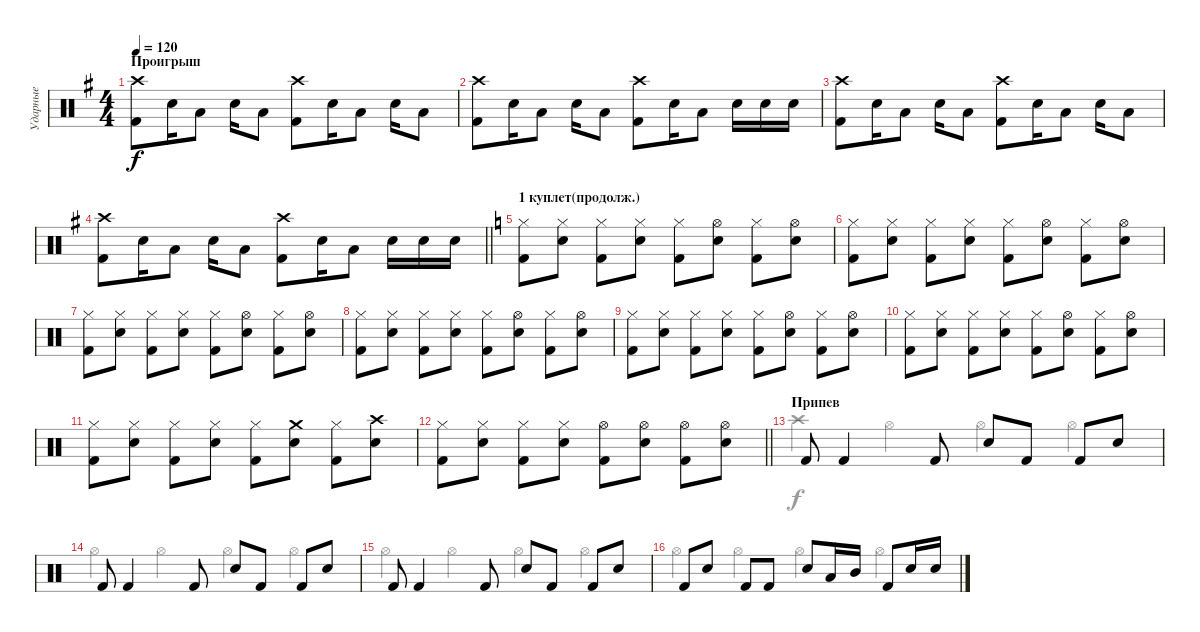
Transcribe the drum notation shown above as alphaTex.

\track ("Ударные" "Ударные") {instrument percussion}
\staff {score}
\articulation defaults
\voice
\ts (4 4)
\section ("" "Проигрыш")
\tempo 120
\clef neutral
\ks g
("Crash high (hit)" "Kick (hit) 2").8{dy f} "Electric Snare (hit)".16 "Low Tom (hit)".8 "Electric Snare (hit)".16 "Low Tom (hit)".8 ("Crash high (hit)" "Kick (hit) 2").8 "Electric Snare (hit)".16 "Low Tom (hit)".8 "Electric Snare (hit)".16 "Low Tom (hit)".8 |
("Crash high (hit)" "Kick (hit) 2").8 "Electric Snare (hit)".16 "Low Tom (hit)".8 "Electric Snare (hit)".16 "Low Tom (hit)".8 ("Crash high (hit)" "Kick (hit) 2").8 "Electric Snare (hit)".16 "Low Tom (hit)".8 "Electric Snare (hit)".16 "Electric Snare (hit)".16 "Electric Snare (hit)".16 |
("Crash high (hit)" "Kick (hit) 2").8 "Electric Snare (hit)".16 "Low Tom (hit)".8 "Electric Snare (hit)".16 "Low Tom (hit)".8 ("Crash high (hit)" "Kick (hit) 2").8 "Electric Snare (hit)".16 "Low Tom (hit)".8 "Electric Snare (hit)".16 "Low Tom (hit)".8 |
\barLineRight lightlight
("Crash high (hit)" "Kick (hit) 2").8 "Electric Snare (hit)".16 "Low Tom (hit)".8 "Electric Snare (hit)".16 "Low Tom (hit)".8 ("Crash high (hit)" "Kick (hit) 2").8 "Electric Snare (hit)".16 "Low Tom (hit)".8 "Electric Snare (hit)".16 "Electric Snare (hit)".16 "Electric Snare (hit)".16 |
\section ("" "1 куплет(продолж.)")
\ks c
("Hi-Hat (closed)" "Kick (hit) 2").8 ("Hi-Hat (closed)" "Electric Snare (hit)").8 ("Hi-Hat (closed)" "Kick (hit) 2").8 ("Hi-Hat (closed)" "Electric Snare (hit)").8 ("Hi-Hat (closed)" "Kick (hit) 2").8 ("Hi-Hat (open)" "Electric Snare (hit)").8 ("Hi-Hat (closed)" "Kick (hit) 2").8 ("Hi-Hat (open)" "Electric Snare (hit)").8 |
("Hi-Hat (closed)" "Kick (hit) 2").8 ("Hi-Hat (closed)" "Electric Snare (hit)").8 ("Hi-Hat (closed)" "Kick (hit) 2").8 ("Hi-Hat (closed)" "Electric Snare (hit)").8 ("Hi-Hat (closed)" "Kick (hit) 2").8 ("Hi-Hat (open)" "Electric Snare (hit)").8 ("Hi-Hat (closed)" "Kick (hit) 2").8 ("Hi-Hat (open)" "Electric Snare (hit)").8 |
("Hi-Hat (closed)" "Kick (hit) 2").8 ("Hi-Hat (closed)" "Electric Snare (hit)").8 ("Hi-Hat (closed)" "Kick (hit) 2").8 ("Hi-Hat (closed)" "Electric Snare (hit)").8 ("Hi-Hat (closed)" "Kick (hit) 2").8 ("Hi-Hat (open)" "Electric Snare (hit)").8 ("Hi-Hat (closed)" "Kick (hit) 2").8 ("Hi-Hat (open)" "Electric Snare (hit)").8 |
("Hi-Hat (closed)" "Kick (hit) 2").8 ("Hi-Hat (closed)" "Electric Snare (hit)").8 ("Hi-Hat (closed)" "Kick (hit) 2").8 ("Hi-Hat (closed)" "Electric Snare (hit)").8 ("Hi-Hat (closed)" "Kick (hit) 2").8 ("Hi-Hat (open)" "Electric Snare (hit)").8 ("Hi-Hat (closed)" "Kick (hit) 2").8 ("Hi-Hat (open)" "Electric Snare (hit)").8 |
("Hi-Hat (closed)" "Kick (hit) 2").8 ("Hi-Hat (closed)" "Electric Snare (hit)").8 ("Hi-Hat (closed)" "Kick (hit) 2").8 ("Hi-Hat (closed)" "Electric Snare (hit)").8 ("Hi-Hat (closed)" "Kick (hit) 2").8 ("Hi-Hat (open)" "Electric Snare (hit)").8 ("Hi-Hat (closed)" "Kick (hit) 2").8 ("Hi-Hat (open)" "Electric Snare (hit)").8 |
("Hi-Hat (closed)" "Kick (hit) 2").8 ("Hi-Hat (closed)" "Electric Snare (hit)").8 ("Hi-Hat (closed)" "Kick (hit) 2").8 ("Hi-Hat (closed)" "Electric Snare (hit)").8 ("Hi-Hat (closed)" "Kick (hit) 2").8 ("Hi-Hat (open)" "Electric Snare (hit)").8 ("Hi-Hat (closed)" "Kick (hit) 2").8 ("Hi-Hat (open)" "Electric Snare (hit)").8 |
("Hi-Hat (closed)" "Kick (hit) 2").8 ("Hi-Hat (closed)" "Electric Snare (hit)").8 ("Hi-Hat (closed)" "Kick (hit) 2").8 ("Hi-Hat (closed)" "Electric Snare (hit)").8 ("Hi-Hat (closed)" "Kick (hit) 2").8 ("Crash medium (hit)" "Electric Snare (hit)").8 ("Hi-Hat (closed)" "Kick (hit) 2").8 ("Crash high (hit)" "Electric Snare (hit)").8 |
\barLineRight lightlight
("Hi-Hat (closed)" "Kick (hit) 2").8 ("Hi-Hat (closed)" "Electric Snare (hit)").8 ("Hi-Hat (closed)" "Kick (hit) 2").8 ("Hi-Hat (closed)" "Electric Snare (hit)").8 ("Hi-Hat (open)" "Kick (hit) 2").8 ("Hi-Hat (open)" "Electric Snare (hit)").8 ("Hi-Hat (open)" "Kick (hit) 2").8 ("Hi-Hat (open)" "Electric Snare (hit)").8 |
\section ("" "Припев")
"Kick (hit) 2".8 "Kick (hit) 2".4 "Kick (hit) 2".8 "Electric Snare (hit)".8 "Kick (hit) 2".8 "Kick (hit) 2".8 "Electric Snare (hit)".8 |
"Kick (hit) 2".8 "Kick (hit) 2".4 "Kick (hit) 2".8 "Electric Snare (hit)".8 "Kick (hit) 2".8 "Kick (hit) 2".8 "Electric Snare (hit)".8 |
"Kick (hit) 2".8 "Kick (hit) 2".4 "Kick (hit) 2".8 "Electric Snare (hit)".8 "Kick (hit) 2".8 "Kick (hit) 2".8 "Electric Snare (hit)".8 |
"Kick (hit) 2".8 "Electric Snare (hit)".8 "Kick (hit) 2".8 "Kick (hit) 2".8 "Electric Snare (hit)".8 "Low Tom (hit)".16 "Mid Tom (hit)".16 "Kick (hit) 2".8 "Electric Snare (hit)".16 "Electric Snare (hit)".16
\voice
\clef neutral
\ottava regular
\simile none
\ks g
|
|
|
\barLineRight lightlight
|
\ks c
|
|
|
|
|
|
|
\barLineRight lightlight
|
"Crash high (hit)".4 "Hi-Hat (open)".4 "Hi-Hat (open)".4 "Hi-Hat (open)".4 |
"Hi-Hat (open)".4 "Hi-Hat (open)".4 "Hi-Hat (open)".4 "Hi-Hat (open)".4 |
"Hi-Hat (open)".4 "Hi-Hat (open)".4 "Hi-Hat (open)".4 "Hi-Hat (open)".4 |
"Hi-Hat (open)".4 "Hi-Hat (open)".4 "Hi-Hat (open)".4 "Hi-Hat (open)".4
